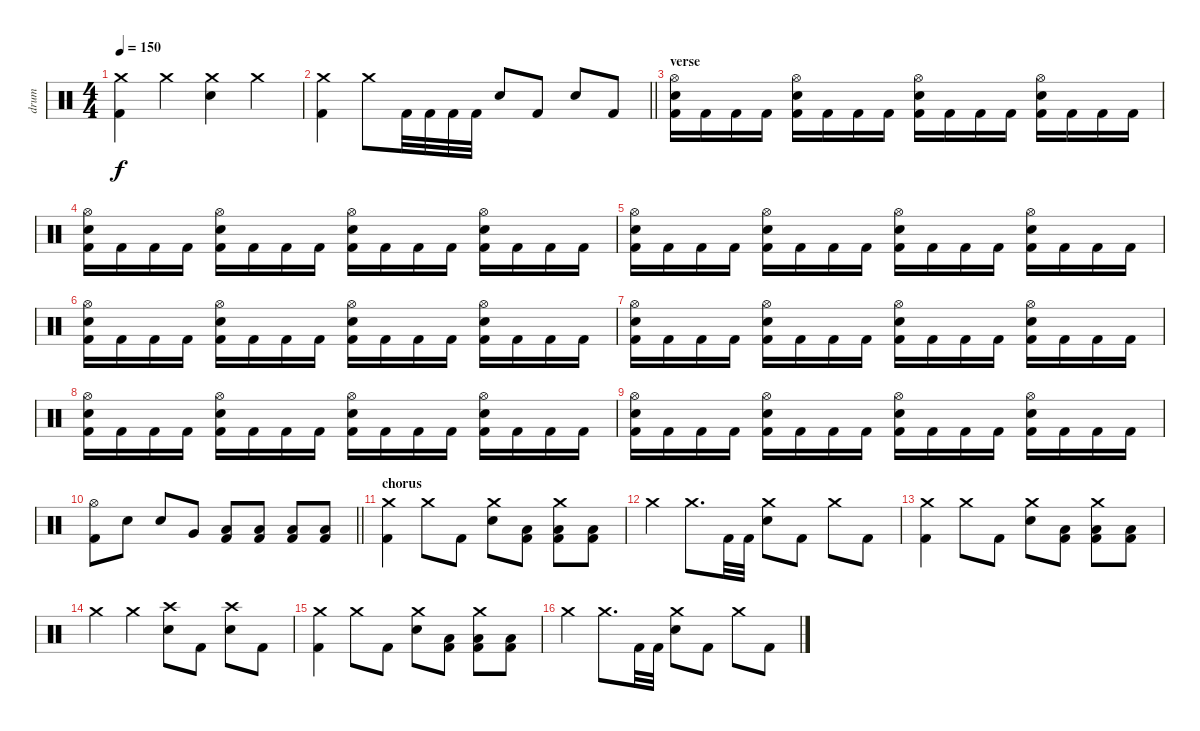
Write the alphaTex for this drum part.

\track ("drum" "drum") {instrument percussion}
\staff {score}
\articulation defaults
\ts (4 4)
\tempo 150
\clef neutral
\ks c
("Crash medium (hit)" "Kick (hit) 2").4{dy f} "Crash medium (hit)".4 ("Crash medium (hit)" "Electric Snare (hit)").4 "Crash medium (hit)".4 |
\barLineRight lightlight
("Crash medium (hit)" "Kick (hit) 2").4 "Crash medium (hit)".8 "Kick (hit) 2".32 "Kick (hit) 2".32 "Kick (hit) 2".32 "Kick (hit) 2".32 "Electric Snare (hit)".8 "Kick (hit) 2".8 "Electric Snare (hit)".8 "Kick (hit) 2".8 |
\section ("" "verse")
("Hi-Hat (open)" "Electric Snare (hit)" "Kick (hit) 2").16 "Kick (hit) 2".16 "Kick (hit) 2".16 "Kick (hit) 2".16 ("Hi-Hat (open)" "Electric Snare (hit)" "Kick (hit) 2").16 "Kick (hit) 2".16 "Kick (hit) 2".16 "Kick (hit) 2".16 ("Hi-Hat (open)" "Electric Snare (hit)" "Kick (hit) 2").16 "Kick (hit) 2".16 "Kick (hit) 2".16 "Kick (hit) 2".16 ("Hi-Hat (open)" "Electric Snare (hit)" "Kick (hit) 2").16 "Kick (hit) 2".16 "Kick (hit) 2".16 "Kick (hit) 2".16 |
("Hi-Hat (open)" "Electric Snare (hit)" "Kick (hit) 2").16 "Kick (hit) 2".16 "Kick (hit) 2".16 "Kick (hit) 2".16 ("Hi-Hat (open)" "Electric Snare (hit)" "Kick (hit) 2").16 "Kick (hit) 2".16 "Kick (hit) 2".16 "Kick (hit) 2".16 ("Hi-Hat (open)" "Electric Snare (hit)" "Kick (hit) 2").16 "Kick (hit) 2".16 "Kick (hit) 2".16 "Kick (hit) 2".16 ("Hi-Hat (open)" "Electric Snare (hit)" "Kick (hit) 2").16 "Kick (hit) 2".16 "Kick (hit) 2".16 "Kick (hit) 2".16 |
("Hi-Hat (open)" "Electric Snare (hit)" "Kick (hit) 2").16 "Kick (hit) 2".16 "Kick (hit) 2".16 "Kick (hit) 2".16 ("Hi-Hat (open)" "Electric Snare (hit)" "Kick (hit) 2").16 "Kick (hit) 2".16 "Kick (hit) 2".16 "Kick (hit) 2".16 ("Hi-Hat (open)" "Electric Snare (hit)" "Kick (hit) 2").16 "Kick (hit) 2".16 "Kick (hit) 2".16 "Kick (hit) 2".16 ("Hi-Hat (open)" "Electric Snare (hit)" "Kick (hit) 2").16 "Kick (hit) 2".16 "Kick (hit) 2".16 "Kick (hit) 2".16 |
("Hi-Hat (open)" "Electric Snare (hit)" "Kick (hit) 2").16 "Kick (hit) 2".16 "Kick (hit) 2".16 "Kick (hit) 2".16 ("Hi-Hat (open)" "Electric Snare (hit)" "Kick (hit) 2").16 "Kick (hit) 2".16 "Kick (hit) 2".16 "Kick (hit) 2".16 ("Hi-Hat (open)" "Electric Snare (hit)" "Kick (hit) 2").16 "Kick (hit) 2".16 "Kick (hit) 2".16 "Kick (hit) 2".16 ("Hi-Hat (open)" "Electric Snare (hit)" "Kick (hit) 2").16 "Kick (hit) 2".16 "Kick (hit) 2".16 "Kick (hit) 2".16 |
("Hi-Hat (open)" "Electric Snare (hit)" "Kick (hit) 2").16 "Kick (hit) 2".16 "Kick (hit) 2".16 "Kick (hit) 2".16 ("Hi-Hat (open)" "Electric Snare (hit)" "Kick (hit) 2").16 "Kick (hit) 2".16 "Kick (hit) 2".16 "Kick (hit) 2".16 ("Hi-Hat (open)" "Electric Snare (hit)" "Kick (hit) 2").16 "Kick (hit) 2".16 "Kick (hit) 2".16 "Kick (hit) 2".16 ("Hi-Hat (open)" "Electric Snare (hit)" "Kick (hit) 2").16 "Kick (hit) 2".16 "Kick (hit) 2".16 "Kick (hit) 2".16 |
("Hi-Hat (open)" "Electric Snare (hit)" "Kick (hit) 2").16 "Kick (hit) 2".16 "Kick (hit) 2".16 "Kick (hit) 2".16 ("Hi-Hat (open)" "Electric Snare (hit)" "Kick (hit) 2").16 "Kick (hit) 2".16 "Kick (hit) 2".16 "Kick (hit) 2".16 ("Hi-Hat (open)" "Electric Snare (hit)" "Kick (hit) 2").16 "Kick (hit) 2".16 "Kick (hit) 2".16 "Kick (hit) 2".16 ("Hi-Hat (open)" "Electric Snare (hit)" "Kick (hit) 2").16 "Kick (hit) 2".16 "Kick (hit) 2".16 "Kick (hit) 2".16 |
("Hi-Hat (open)" "Electric Snare (hit)" "Kick (hit) 2").16 "Kick (hit) 2".16 "Kick (hit) 2".16 "Kick (hit) 2".16 ("Hi-Hat (open)" "Electric Snare (hit)" "Kick (hit) 2").16 "Kick (hit) 2".16 "Kick (hit) 2".16 "Kick (hit) 2".16 ("Hi-Hat (open)" "Electric Snare (hit)" "Kick (hit) 2").16 "Kick (hit) 2".16 "Kick (hit) 2".16 "Kick (hit) 2".16 ("Hi-Hat (open)" "Electric Snare (hit)" "Kick (hit) 2").16 "Kick (hit) 2".16 "Kick (hit) 2".16 "Kick (hit) 2".16 |
\barLineRight lightlight
("Hi-Hat (open)" "Kick (hit) 2").8 "Electric Snare (hit)".8 "Electric Snare (hit)".8 "Very Low Tom (hit)".8 ("Low Floor Tom (hit)" "Kick (hit) 2").8 ("Low Floor Tom (hit)" "Kick (hit) 2").8 ("Low Floor Tom (hit)" "Kick (hit) 2").8 ("Low Floor Tom (hit)" "Kick (hit) 2").8 |
\section ("" "chorus")
("Crash medium (hit)" "Kick (hit) 2").4 "Crash medium (hit)".8 "Kick (hit) 2".8 ("Crash medium (hit)" "Electric Snare (hit)").8 ("Low Floor Tom (hit)" "Kick (hit) 2").8 ("Crash medium (hit)" "Low Floor Tom (hit)" "Kick (hit) 2").8 ("Low Floor Tom (hit)" "Kick (hit) 2").8 |
"Crash medium (hit)".4 "Crash medium (hit)".8{d} "Kick (hit) 2".32 "Kick (hit) 2".32 ("Crash medium (hit)" "Electric Snare (hit)").8 "Kick (hit) 2".8 "Crash medium (hit)".8 "Kick (hit) 2".8 |
("Crash medium (hit)" "Kick (hit) 2").4 "Crash medium (hit)".8 "Kick (hit) 2".8 ("Crash medium (hit)" "Electric Snare (hit)").8 ("Low Floor Tom (hit)" "Kick (hit) 2").8 ("Crash medium (hit)" "Low Floor Tom (hit)" "Kick (hit) 2").8 ("Low Floor Tom (hit)" "Kick (hit) 2").8 |
"Crash medium (hit)".4 "Crash medium (hit)".4 ("Crash high (hit)" "Electric Snare (hit)").8 "Kick (hit) 2".8 ("Crash high (hit)" "Electric Snare (hit)").8 "Kick (hit) 2".8 |
("Crash medium (hit)" "Kick (hit) 2").4 "Crash medium (hit)".8 "Kick (hit) 2".8 ("Crash medium (hit)" "Electric Snare (hit)").8 ("Low Floor Tom (hit)" "Kick (hit) 2").8 ("Crash medium (hit)" "Low Floor Tom (hit)" "Kick (hit) 2").8 ("Low Floor Tom (hit)" "Kick (hit) 2").8 |
"Crash medium (hit)".4 "Crash medium (hit)".8{d} "Kick (hit) 2".32 "Kick (hit) 2".32 ("Crash medium (hit)" "Electric Snare (hit)").8 "Kick (hit) 2".8 "Crash medium (hit)".8 "Kick (hit) 2".8
